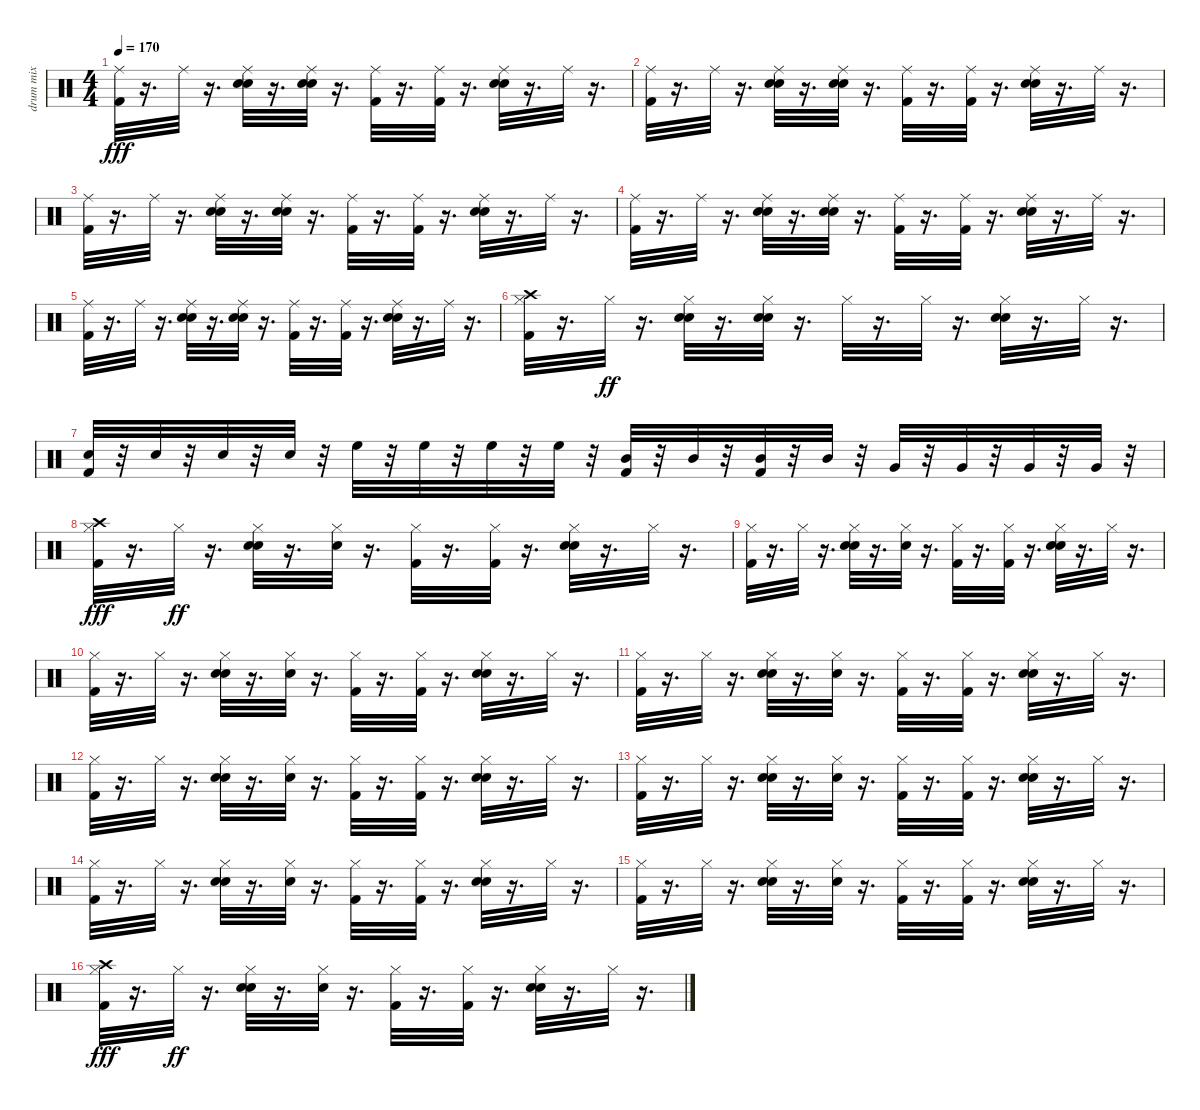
\track ("drum mix" "drum mix") {instrument percussion}
\staff {score}
\articulation defaults
\ts (4 4)
\tempo 170
\clef neutral
\ks c
("Kick (hit) 2" "Ride (middle)").32{dy fff} r.16{d} "Ride (middle)".32 r.16{d} ("Snare (hit) 2" "Hand Clap (hit)" "Ride (middle)").32 r.16{d} ("Snare (hit) 2" "Hand Clap (hit)" "Ride (middle)").32 r.16{d} ("Kick (hit) 2" "Ride (middle)").32 r.16{d} ("Kick (hit) 2" "Ride (middle)").32 r.16{d} ("Snare (hit) 2" "Hand Clap (hit)" "Ride (middle)").32 r.16{d} "Ride (middle)".32 r.16{d} |
("Kick (hit) 2" "Ride (middle)").32 r.16{d} "Ride (middle)".32 r.16{d} ("Snare (hit) 2" "Hand Clap (hit)" "Ride (middle)").32 r.16{d} ("Snare (hit) 2" "Hand Clap (hit)" "Ride (middle)").32 r.16{d} ("Kick (hit) 2" "Ride (middle)").32 r.16{d} ("Kick (hit) 2" "Ride (middle)").32 r.16{d} ("Snare (hit) 2" "Hand Clap (hit)" "Ride (middle)").32 r.16{d} "Ride (middle)".32 r.16{d} |
("Kick (hit) 2" "Ride (middle)").32 r.16{d} "Ride (middle)".32 r.16{d} ("Snare (hit) 2" "Hand Clap (hit)" "Ride (middle)").32 r.16{d} ("Snare (hit) 2" "Hand Clap (hit)" "Ride (middle)").32 r.16{d} ("Kick (hit) 2" "Ride (middle)").32 r.16{d} ("Kick (hit) 2" "Ride (middle)").32 r.16{d} ("Snare (hit) 2" "Hand Clap (hit)" "Ride (middle)").32 r.16{d} "Ride (middle)".32 r.16{d} |
("Kick (hit) 2" "Ride (middle)").32 r.16{d} "Ride (middle)".32 r.16{d} ("Snare (hit) 2" "Hand Clap (hit)" "Ride (middle)").32 r.16{d} ("Snare (hit) 2" "Hand Clap (hit)" "Ride (middle)").32 r.16{d} ("Kick (hit) 2" "Ride (middle)").32 r.16{d} ("Kick (hit) 2" "Ride (middle)").32 r.16{d} ("Snare (hit) 2" "Hand Clap (hit)" "Ride (middle)").32 r.16{d} "Ride (middle)".32 r.16{d} |
("Kick (hit) 2" "Ride (middle)").32 r.16{d} "Ride (middle)".32 r.16{d} ("Snare (hit) 2" "Hand Clap (hit)" "Ride (middle)").32 r.16{d} ("Snare (hit) 2" "Hand Clap (hit)" "Ride (middle)").32 r.16{d} ("Kick (hit) 2" "Ride (middle)").32 r.16{d} ("Kick (hit) 2" "Ride (middle)").32 r.16{d} ("Snare (hit) 2" "Hand Clap (hit)" "Ride (middle)").32 r.16{d} "Ride (middle)".32 r.16{d} |
("Kick (hit) 2" "Hi-Hat (closed)" "Crash high (hit)").32 r.16{d} "Hi-Hat (closed)".32{dy ff} r.16{d} ("Snare (hit) 2" "Hand Clap (hit)" "Hi-Hat (closed)").32 r.16{d} ("Snare (hit) 2" "Hand Clap (hit)" "Hi-Hat (closed)").32 r.16{d} "Hi-Hat (closed)".32 r.16{d} "Hi-Hat (closed)".32 r.16{d} ("Snare (hit) 2" "Hand Clap (hit)" "Hi-Hat (closed)").32 r.16{d} "Hi-Hat (closed)".32 r.16{d} |
("Kick (hit) 2" "Snare (hit) 2").32 r.32 "Snare (hit) 2".32 r.32 "Snare (hit) 2".32 r.32 "Snare (hit) 2".32 r.32 "High Floor Tom (hit)".32 r.32 "High Floor Tom (hit)".32 r.32 "High Floor Tom (hit)".32 r.32 "High Floor Tom (hit)".32 r.32 ("Kick (hit) 2" "Mid Tom (hit)").32 r.32 "Mid Tom (hit)".32 r.32 ("Kick (hit) 2" "Mid Tom (hit)").32 r.32 "Mid Tom (hit)".32 r.32 "Very Low Tom (hit)".32 r.32 "Very Low Tom (hit)".32 r.32 "Very Low Tom (hit)".32 r.32 "Very Low Tom (hit)".32 r.32 |
("Kick (hit) 2" "Hi-Hat (closed)" "Crash high (hit)").32{dy fff} r.16{d} "Hi-Hat (closed)".32{dy ff} r.16{d} ("Snare (hit) 2" "Hand Clap (hit)" "Hi-Hat (closed)").32 r.16{d} ("Snare (hit) 2" "Hi-Hat (closed)").32 r.16{d} ("Kick (hit) 2" "Hi-Hat (closed)").32 r.16{d} ("Kick (hit) 2" "Hi-Hat (closed)").32 r.16{d} ("Snare (hit) 2" "Hand Clap (hit)" "Hi-Hat (closed)").32 r.16{d} "Hi-Hat (closed)".32 r.16{d} |
("Kick (hit) 2" "Hi-Hat (closed)").32 r.16{d} "Hi-Hat (closed)".32 r.16{d} ("Snare (hit) 2" "Hand Clap (hit)" "Hi-Hat (closed)").32 r.16{d} ("Snare (hit) 2" "Hi-Hat (closed)").32 r.16{d} ("Kick (hit) 2" "Hi-Hat (closed)").32 r.16{d} ("Kick (hit) 2" "Hi-Hat (closed)").32 r.16{d} ("Snare (hit) 2" "Hand Clap (hit)" "Hi-Hat (closed)").32 r.16{d} "Hi-Hat (closed)".32 r.16{d} |
("Kick (hit) 2" "Hi-Hat (closed)").32 r.16{d} "Hi-Hat (closed)".32 r.16{d} ("Snare (hit) 2" "Hand Clap (hit)" "Hi-Hat (closed)").32 r.16{d} ("Snare (hit) 2" "Hi-Hat (closed)").32 r.16{d} ("Kick (hit) 2" "Hi-Hat (closed)").32 r.16{d} ("Kick (hit) 2" "Hi-Hat (closed)").32 r.16{d} ("Snare (hit) 2" "Hand Clap (hit)" "Hi-Hat (closed)").32 r.16{d} "Hi-Hat (closed)".32 r.16{d} |
("Kick (hit) 2" "Hi-Hat (closed)").32 r.16{d} "Hi-Hat (closed)".32 r.16{d} ("Snare (hit) 2" "Hand Clap (hit)" "Hi-Hat (closed)").32 r.16{d} ("Snare (hit) 2" "Hi-Hat (closed)").32 r.16{d} ("Kick (hit) 2" "Hi-Hat (closed)").32 r.16{d} ("Kick (hit) 2" "Hi-Hat (closed)").32 r.16{d} ("Snare (hit) 2" "Hand Clap (hit)" "Hi-Hat (closed)").32 r.16{d} "Hi-Hat (closed)".32 r.16{d} |
("Kick (hit) 2" "Hi-Hat (closed)").32 r.16{d} "Hi-Hat (closed)".32 r.16{d} ("Snare (hit) 2" "Hand Clap (hit)" "Hi-Hat (closed)").32 r.16{d} ("Snare (hit) 2" "Hi-Hat (closed)").32 r.16{d} ("Kick (hit) 2" "Hi-Hat (closed)").32 r.16{d} ("Kick (hit) 2" "Hi-Hat (closed)").32 r.16{d} ("Snare (hit) 2" "Hand Clap (hit)" "Hi-Hat (closed)").32 r.16{d} "Hi-Hat (closed)".32 r.16{d} |
("Kick (hit) 2" "Hi-Hat (closed)").32 r.16{d} "Hi-Hat (closed)".32 r.16{d} ("Snare (hit) 2" "Hand Clap (hit)" "Hi-Hat (closed)").32 r.16{d} ("Snare (hit) 2" "Hi-Hat (closed)").32 r.16{d} ("Kick (hit) 2" "Hi-Hat (closed)").32 r.16{d} ("Kick (hit) 2" "Hi-Hat (closed)").32 r.16{d} ("Snare (hit) 2" "Hand Clap (hit)" "Hi-Hat (closed)").32 r.16{d} "Hi-Hat (closed)".32 r.16{d} |
("Kick (hit) 2" "Hi-Hat (closed)").32 r.16{d} "Hi-Hat (closed)".32 r.16{d} ("Snare (hit) 2" "Hand Clap (hit)" "Hi-Hat (closed)").32 r.16{d} ("Snare (hit) 2" "Hi-Hat (closed)").32 r.16{d} ("Kick (hit) 2" "Hi-Hat (closed)").32 r.16{d} ("Kick (hit) 2" "Hi-Hat (closed)").32 r.16{d} ("Snare (hit) 2" "Hand Clap (hit)" "Hi-Hat (closed)").32 r.16{d} "Hi-Hat (closed)".32 r.16{d} |
("Kick (hit) 2" "Hi-Hat (closed)").32 r.16{d} "Hi-Hat (closed)".32 r.16{d} ("Snare (hit) 2" "Hand Clap (hit)" "Hi-Hat (closed)").32 r.16{d} ("Snare (hit) 2" "Hi-Hat (closed)").32 r.16{d} ("Kick (hit) 2" "Hi-Hat (closed)").32 r.16{d} ("Kick (hit) 2" "Hi-Hat (closed)").32 r.16{d} ("Snare (hit) 2" "Hand Clap (hit)" "Hi-Hat (closed)").32 r.16{d} "Hi-Hat (closed)".32 r.16{d} |
("Kick (hit) 2" "Hi-Hat (closed)" "Crash high (hit)").32{dy fff} r.16{d} "Hi-Hat (closed)".32{dy ff} r.16{d} ("Snare (hit) 2" "Hand Clap (hit)" "Hi-Hat (closed)").32 r.16{d} ("Snare (hit) 2" "Hi-Hat (closed)").32 r.16{d} ("Kick (hit) 2" "Hi-Hat (closed)").32 r.16{d} ("Kick (hit) 2" "Hi-Hat (closed)").32 r.16{d} ("Snare (hit) 2" "Hand Clap (hit)" "Hi-Hat (closed)").32 r.16{d} "Hi-Hat (closed)".32 r.16{d}
